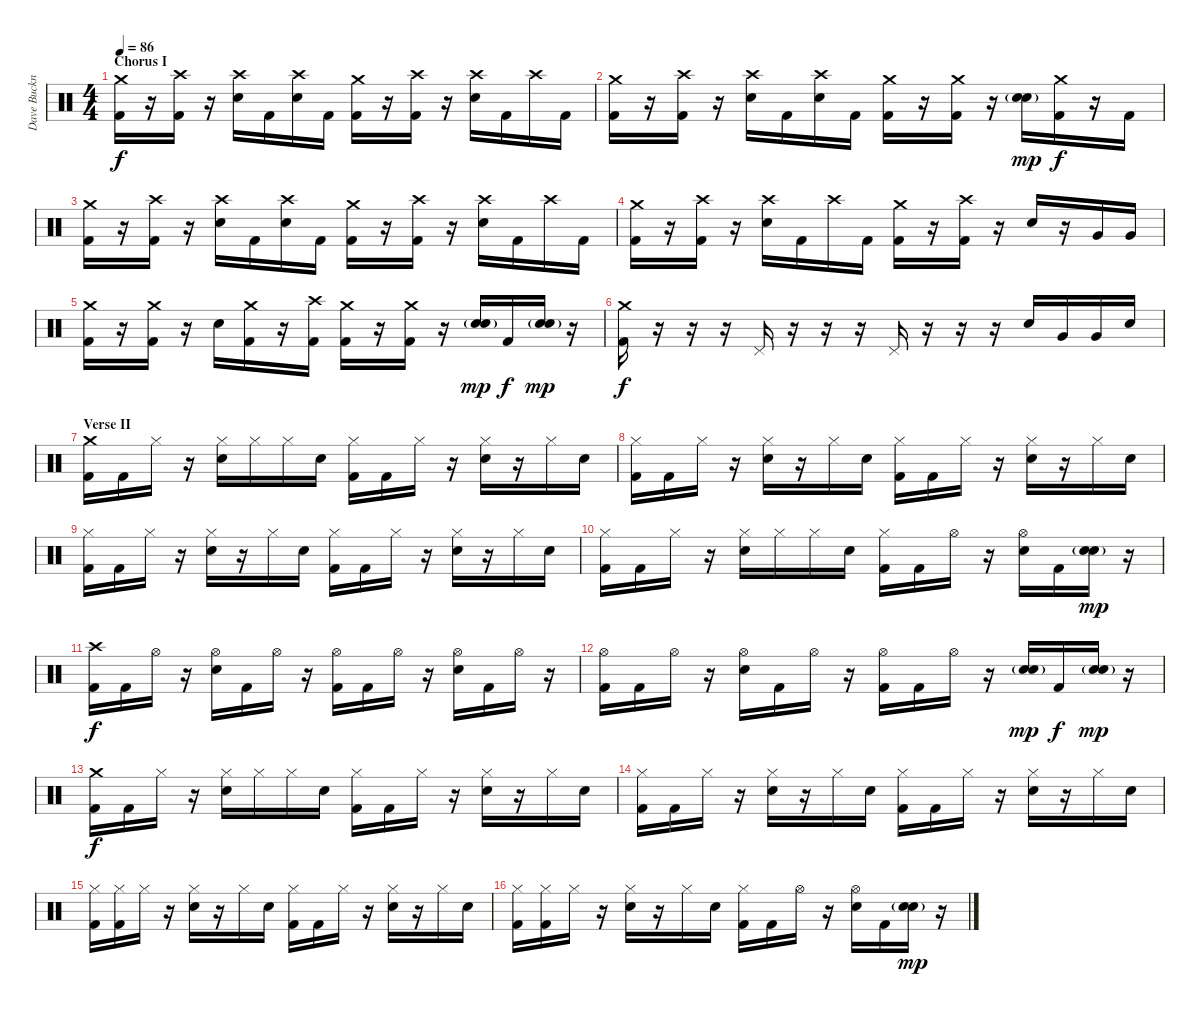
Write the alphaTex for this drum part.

\track ("Dave Buckner - Drums" "Dave Buckn") {instrument percussion}
\staff {score}
\articulation defaults
\ts (4 4)
\section ("" "Chorus I")
\tempo 86
\clef neutral
\ks c
("Crash medium (hit)" "Kick (hit) 2").16{dy f} r.16 ("Crash high (hit)" "Kick (hit) 2").16 r.16 ("Crash high (hit)" "Snare (hit) 2").16 "Kick (hit) 2".16 ("Crash high (hit)" "Snare (hit) 2").16 "Kick (hit) 2".16 ("Crash medium (hit)" "Kick (hit) 2").16 r.16 ("Crash high (hit)" "Kick (hit) 2").16 r.16 ("Crash high (hit)" "Snare (hit) 2").16 "Kick (hit) 2".16 "Crash high (hit)".16 "Kick (hit) 2".16 |
("Crash medium (hit)" "Kick (hit) 2").16 r.16 ("Crash high (hit)" "Kick (hit) 2").16 r.16 ("Crash high (hit)" "Snare (hit) 2").16 "Kick (hit) 2".16 ("Crash high (hit)" "Snare (hit) 2").16 "Kick (hit) 2".16 ("Crash medium (hit)" "Kick (hit) 2").16 r.16 ("Crash medium (hit)" "Kick (hit) 2").16 r.16 ("Snare (hit) 2"{g} "Snare (hit) 2").16{dy mp} ("Crash medium (hit)" "Kick (hit) 2").16{dy f} r.16 "Kick (hit) 2".16 |
("Crash medium (hit)" "Kick (hit) 2").16 r.16 ("Crash high (hit)" "Kick (hit) 2").16 r.16 ("Crash high (hit)" "Snare (hit) 2").16 "Kick (hit) 2".16 ("Crash high (hit)" "Snare (hit) 2").16 "Kick (hit) 2".16 ("Crash medium (hit)" "Kick (hit) 2").16 r.16 ("Crash high (hit)" "Kick (hit) 2").16 r.16 ("Crash high (hit)" "Snare (hit) 2").16 "Kick (hit) 2".16 "Crash high (hit)".16 "Kick (hit) 2".16 |
("Crash medium (hit)" "Kick (hit) 2").16 r.16 ("Crash high (hit)" "Kick (hit) 2").16 r.16 ("Crash high (hit)" "Snare (hit) 2").16 "Kick (hit) 2".16 "Crash high (hit)".16 "Kick (hit) 2".16 ("Crash medium (hit)" "Kick (hit) 2").16 r.16 ("Crash high (hit)" "Kick (hit) 2").16 r.16 "Snare (hit) 2".16 r.16 "Very Low Tom (hit)".16 "Very Low Tom (hit)".16 |
("Crash medium (hit)" "Kick (hit) 2").16 r.16 ("Crash medium (hit)" "Kick (hit) 2").16 r.16 "Snare (hit) 2".16 ("Crash medium (hit)" "Kick (hit) 2").16 r.16 ("Crash high (hit)" "Kick (hit) 2").16 ("Crash medium (hit)" "Kick (hit) 2").16 r.16 ("Crash medium (hit)" "Kick (hit) 2").16 r.16 ("Snare (hit) 2"{g} "Snare (hit) 2").16{dy mp} "Kick (hit) 2".16{dy f} ("Snare (hit) 2"{g} "Snare (hit) 2").16{dy mp} r.16 |
("Crash medium (hit)" "Kick (hit) 2").16{dy f} r.16 r.16 r.16 "Pedal Hi-Hat (hit)".16 r.16 r.16 r.16 "Pedal Hi-Hat (hit)".16 r.16 r.16 r.16 "Snare (hit) 2".16 "Very Low Tom (hit)".16 "Very Low Tom (hit)".16 "Snare (hit) 2".16 |
\section ("" "Verse II")
("Crash medium (hit)" "Kick (hit) 2").16 "Kick (hit) 2".16 "Hi-Hat (closed)".16 r.16 ("Hi-Hat (closed)" "Snare (hit) 2").16 "Hi-Hat (closed)".16 "Hi-Hat (closed)".16 "Snare (hit) 2".16 ("Hi-Hat (closed)" "Kick (hit) 2").16 "Kick (hit) 2".16 "Hi-Hat (closed)".16 r.16 ("Hi-Hat (closed)" "Snare (hit) 2").16 r.16 "Hi-Hat (closed)".16 "Snare (hit) 2".16 |
("Hi-Hat (closed)" "Kick (hit) 2").16 "Kick (hit) 2".16 "Hi-Hat (closed)".16 r.16 ("Hi-Hat (closed)" "Snare (hit) 2").16 r.16 "Hi-Hat (closed)".16 "Snare (hit) 2".16 ("Hi-Hat (closed)" "Kick (hit) 2").16 "Kick (hit) 2".16 "Hi-Hat (closed)".16 r.16 ("Hi-Hat (closed)" "Snare (hit) 2").16 r.16 "Hi-Hat (closed)".16 "Snare (hit) 2".16 |
("Hi-Hat (closed)" "Kick (hit) 2").16 "Kick (hit) 2".16 "Hi-Hat (closed)".16 r.16 ("Hi-Hat (closed)" "Snare (hit) 2").16 r.16 "Hi-Hat (closed)".16 "Snare (hit) 2".16 ("Hi-Hat (closed)" "Kick (hit) 2").16 "Kick (hit) 2".16 "Hi-Hat (closed)".16 r.16 ("Hi-Hat (closed)" "Snare (hit) 2").16 r.16 "Hi-Hat (closed)".16 "Snare (hit) 2".16 |
("Hi-Hat (closed)" "Kick (hit) 2").16 "Kick (hit) 2".16 "Hi-Hat (closed)".16 r.16 ("Hi-Hat (closed)" "Snare (hit) 2").16 "Hi-Hat (closed)".16 "Hi-Hat (closed)".16 "Snare (hit) 2".16 ("Hi-Hat (closed)" "Kick (hit) 2").16 "Kick (hit) 2".16 "Hi-Hat (open)".16 r.16 ("Hi-Hat (open)" "Snare (hit) 2").16 "Kick (hit) 2".16 ("Snare (hit) 2"{g} "Snare (hit) 2").16{dy mp} r.16 |
("Crash high (hit)" "Kick (hit) 2").16{dy f} "Kick (hit) 2".16 "Hi-Hat (open)".16 r.16 ("Hi-Hat (open)" "Snare (hit) 2").16 "Kick (hit) 2".16 "Hi-Hat (open)".16 r.16 ("Hi-Hat (open)" "Kick (hit) 2").16 "Kick (hit) 2".16 "Hi-Hat (open)".16 r.16 ("Hi-Hat (open)" "Snare (hit) 2").16 "Kick (hit) 2".16 "Hi-Hat (open)".16 r.16 |
("Hi-Hat (open)" "Kick (hit) 2").16 "Kick (hit) 2".16 "Hi-Hat (open)".16 r.16 ("Hi-Hat (open)" "Snare (hit) 2").16 "Kick (hit) 2".16 "Hi-Hat (open)".16 r.16 ("Hi-Hat (open)" "Kick (hit) 2").16 "Kick (hit) 2".16 "Hi-Hat (open)".16 r.16 ("Snare (hit) 2"{g} "Snare (hit) 2").16{dy mp} "Kick (hit) 2".16{dy f} ("Snare (hit) 2"{g} "Snare (hit) 2").16{dy mp} r.16 |
("Crash medium (hit)" "Kick (hit) 2").16{dy f} "Kick (hit) 2".16 "Hi-Hat (closed)".16 r.16 ("Hi-Hat (closed)" "Snare (hit) 2").16 "Hi-Hat (closed)".16 "Hi-Hat (closed)".16 "Snare (hit) 2".16 ("Hi-Hat (closed)" "Kick (hit) 2").16 "Kick (hit) 2".16 "Hi-Hat (closed)".16 r.16 ("Hi-Hat (closed)" "Snare (hit) 2").16 r.16 "Hi-Hat (closed)".16 "Snare (hit) 2".16 |
("Hi-Hat (closed)" "Kick (hit) 2").16 "Kick (hit) 2".16 "Hi-Hat (closed)".16 r.16 ("Hi-Hat (closed)" "Snare (hit) 2").16 r.16 "Hi-Hat (closed)".16 "Snare (hit) 2".16 ("Hi-Hat (closed)" "Kick (hit) 2").16 "Kick (hit) 2".16 "Hi-Hat (closed)".16 r.16 ("Hi-Hat (closed)" "Snare (hit) 2").16 r.16 "Hi-Hat (closed)".16 "Snare (hit) 2".16 |
("Hi-Hat (closed)" "Kick (hit) 2").16 ("Hi-Hat (closed)" "Kick (hit) 2").16 "Hi-Hat (closed)".16 r.16 ("Hi-Hat (closed)" "Snare (hit) 2").16 r.16 "Hi-Hat (closed)".16 "Snare (hit) 2".16 ("Hi-Hat (closed)" "Kick (hit) 2").16 "Kick (hit) 2".16 "Hi-Hat (closed)".16 r.16 ("Hi-Hat (closed)" "Snare (hit) 2").16 r.16 "Hi-Hat (closed)".16 "Snare (hit) 2".16 |
("Hi-Hat (closed)" "Kick (hit) 2").16 ("Hi-Hat (closed)" "Kick (hit) 2").16 "Hi-Hat (closed)".16 r.16 ("Hi-Hat (closed)" "Snare (hit) 2").16 r.16 "Hi-Hat (closed)".16 "Snare (hit) 2".16 ("Hi-Hat (closed)" "Kick (hit) 2").16 "Kick (hit) 2".16 "Hi-Hat (open)".16 r.16 ("Hi-Hat (open)" "Snare (hit) 2").16 "Kick (hit) 2".16 ("Snare (hit) 2"{g} "Snare (hit) 2").16{dy mp} r.16
